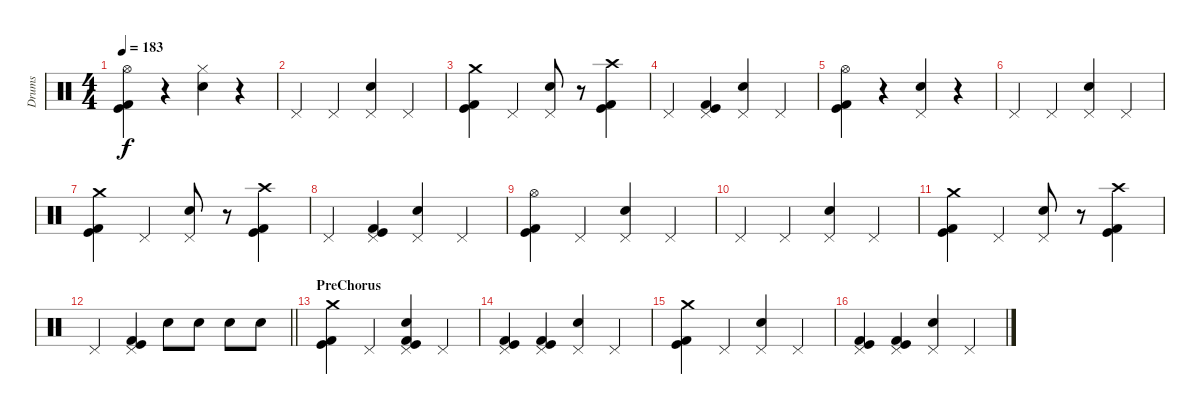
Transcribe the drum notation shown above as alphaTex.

\track ("Drums" "Drums") {instrument percussion}
\staff
\articulation defaults
\ts (4 4)
\tempo 183
\clef neutral
\ks c
("Hi-Hat (open)" "Kick (hit)" "Kick (hit) 2").4{dy f} r.4 ("Hi-Hat (closed)" "Snare (hit) 2").4 r.4 |
"Pedal Hi-Hat (hit)".4 "Pedal Hi-Hat (hit)".4 ("Pedal Hi-Hat (hit)" "Snare (hit) 2").4 "Pedal Hi-Hat (hit)".4 |
("Crash medium (hit)" "Kick (hit)" "Kick (hit) 2").4 "Pedal Hi-Hat (hit)".4 ("Pedal Hi-Hat (hit)" "Snare (hit) 2").8 r.8 ("Crash high (hit)" "Kick (hit)" "Kick (hit) 2").4 |
"Pedal Hi-Hat (hit)".4 ("Pedal Hi-Hat (hit)" "Kick (hit)" "Kick (hit) 2").4 ("Pedal Hi-Hat (hit)" "Snare (hit) 2").4 "Pedal Hi-Hat (hit)".4 |
("Hi-Hat (open)" "Kick (hit)" "Kick (hit) 2").4 r.4 ("Pedal Hi-Hat (hit)" "Snare (hit) 2").4 r.4 |
"Pedal Hi-Hat (hit)".4 "Pedal Hi-Hat (hit)".4 ("Pedal Hi-Hat (hit)" "Snare (hit) 2").4 "Pedal Hi-Hat (hit)".4 |
("Crash medium (hit)" "Kick (hit)" "Kick (hit) 2").4 "Pedal Hi-Hat (hit)".4 ("Pedal Hi-Hat (hit)" "Snare (hit) 2").8 r.8 ("Crash high (hit)" "Kick (hit)" "Kick (hit) 2").4 |
"Pedal Hi-Hat (hit)".4 ("Pedal Hi-Hat (hit)" "Kick (hit)" "Kick (hit) 2").4 ("Pedal Hi-Hat (hit)" "Snare (hit) 2").4 "Pedal Hi-Hat (hit)".4 |
("Hi-Hat (open)" "Kick (hit)" "Kick (hit) 2").4 "Pedal Hi-Hat (hit)".4 ("Pedal Hi-Hat (hit)" "Snare (hit) 2").4 "Pedal Hi-Hat (hit)".4 |
"Pedal Hi-Hat (hit)".4 "Pedal Hi-Hat (hit)".4 ("Pedal Hi-Hat (hit)" "Snare (hit) 2").4 "Pedal Hi-Hat (hit)".4 |
("Crash medium (hit)" "Kick (hit)" "Kick (hit) 2").4 "Pedal Hi-Hat (hit)".4 ("Pedal Hi-Hat (hit)" "Snare (hit) 2").8 r.8 ("Crash high (hit)" "Kick (hit)" "Kick (hit) 2").4 |
\barLineRight lightlight "Pedal Hi-Hat (hit)".4
("Pedal Hi-Hat (hit)" "Kick (hit)" "Kick (hit) 2").4 "Snare (hit) 2".8 "Snare (hit) 2".8 "Snare (hit) 2".8 "Snare (hit) 2".8 |
\section ("" "PreChorus")
("Crash medium (hit)" "Kick (hit)" "Kick (hit) 2").4 "Pedal Hi-Hat (hit)".4 ("Pedal Hi-Hat (hit)" "Snare (hit) 2" "Kick (hit)" "Kick (hit) 2").4 "Pedal Hi-Hat (hit)".4 |
("Pedal Hi-Hat (hit)" "Kick (hit)" "Kick (hit) 2").4 ("Pedal Hi-Hat (hit)" "Kick (hit)" "Kick (hit) 2").4 ("Pedal Hi-Hat (hit)" "Snare (hit) 2").4 "Pedal Hi-Hat (hit)".4 |
("Crash medium (hit)" "Kick (hit)" "Kick (hit) 2").4 "Pedal Hi-Hat (hit)".4 ("Pedal Hi-Hat (hit)" "Snare (hit) 2").4 "Pedal Hi-Hat (hit)".4 |
("Pedal Hi-Hat (hit)" "Kick (hit)" "Kick (hit) 2").4 ("Pedal Hi-Hat (hit)" "Kick (hit)" "Kick (hit) 2").4 ("Pedal Hi-Hat (hit)" "Snare (hit) 2").4 "Pedal Hi-Hat (hit)".4
